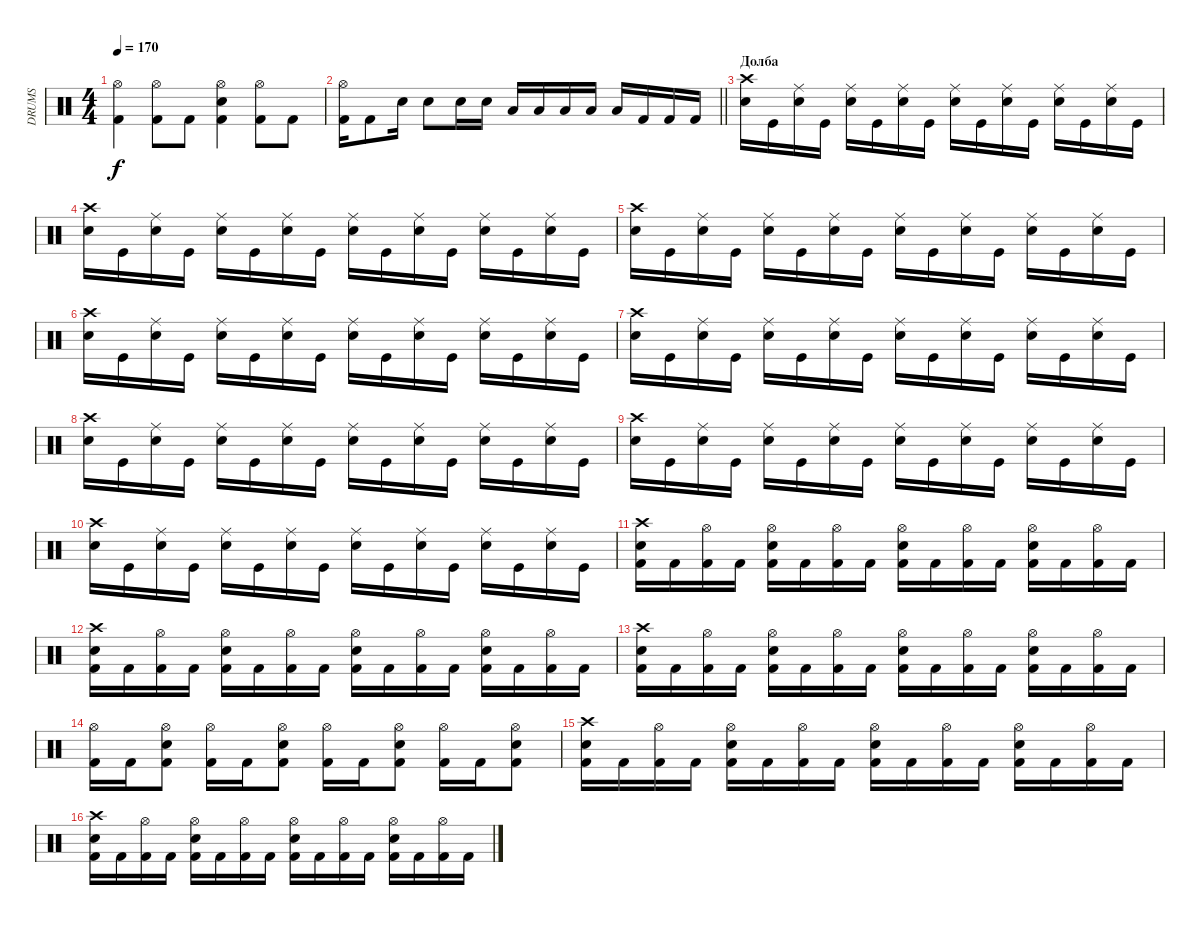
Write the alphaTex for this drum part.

\track ("DRUMS" "DRUMS") {instrument percussion}
\staff {score}
\articulation defaults
\ts (4 4)
\tempo 170
\clef neutral
\ks c
("Hi-Hat (open)" "Kick (hit) 2").4{dy f} ("Hi-Hat (open)" "Kick (hit) 2").8 "Kick (hit) 2".8 ("Hi-Hat (open)" "Snare (hit) 2" "Kick (hit) 2").4 ("Hi-Hat (open)" "Kick (hit) 2").8 "Kick (hit) 2".8 |
\barLineRight lightlight
("Hi-Hat (open)" "Kick (hit) 2").16 "Kick (hit) 2".8 "Snare (hit) 2".16 "Snare (hit) 2".8 "Snare (hit) 2".16 "Snare (hit) 2".16 "Low Tom (hit)".16 "Low Tom (hit)".16 "Low Tom (hit)".16 "Low Tom (hit)".16 "Low Tom (hit)".16 "Kick (hit) 2".16 "Kick (hit) 2".16 "Kick (hit) 2".16 |
\section ("" "Долба")
("Snare (hit) 2" "Crash high (hit)").16 "Kick (hit)".16 ("Snare (hit) 2" "Ride (middle)").16 "Kick (hit)".16 ("Snare (hit) 2" "Ride (middle)").16 "Kick (hit)".16 ("Snare (hit) 2" "Ride (middle)").16 "Kick (hit)".16 ("Snare (hit) 2" "Ride (middle)").16 "Kick (hit)".16 ("Snare (hit) 2" "Ride (middle)").16 "Kick (hit)".16 ("Snare (hit) 2" "Ride (middle)").16 "Kick (hit)".16 ("Snare (hit) 2" "Ride (middle)").16 "Kick (hit)".16 |
("Snare (hit) 2" "Crash high (hit)").16 "Kick (hit)".16 ("Snare (hit) 2" "Ride (middle)").16 "Kick (hit)".16 ("Snare (hit) 2" "Ride (middle)").16 "Kick (hit)".16 ("Snare (hit) 2" "Ride (middle)").16 "Kick (hit)".16 ("Snare (hit) 2" "Ride (middle)").16 "Kick (hit)".16 ("Snare (hit) 2" "Ride (middle)").16 "Kick (hit)".16 ("Snare (hit) 2" "Ride (middle)").16 "Kick (hit)".16 ("Snare (hit) 2" "Ride (middle)").16 "Kick (hit)".16 |
("Snare (hit) 2" "Crash high (hit)").16 "Kick (hit)".16 ("Snare (hit) 2" "Ride (middle)").16 "Kick (hit)".16 ("Snare (hit) 2" "Ride (middle)").16 "Kick (hit)".16 ("Snare (hit) 2" "Ride (middle)").16 "Kick (hit)".16 ("Snare (hit) 2" "Ride (middle)").16 "Kick (hit)".16 ("Snare (hit) 2" "Ride (middle)").16 "Kick (hit)".16 ("Snare (hit) 2" "Ride (middle)").16 "Kick (hit)".16 ("Snare (hit) 2" "Ride (middle)").16 "Kick (hit)".16 |
("Snare (hit) 2" "Crash high (hit)").16 "Kick (hit)".16 ("Snare (hit) 2" "Ride (middle)").16 "Kick (hit)".16 ("Snare (hit) 2" "Ride (middle)").16 "Kick (hit)".16 ("Snare (hit) 2" "Ride (middle)").16 "Kick (hit)".16 ("Snare (hit) 2" "Ride (middle)").16 "Kick (hit)".16 ("Snare (hit) 2" "Ride (middle)").16 "Kick (hit)".16 ("Snare (hit) 2" "Ride (middle)").16 "Kick (hit)".16 ("Snare (hit) 2" "Ride (middle)").16 "Kick (hit)".16 |
("Snare (hit) 2" "Crash high (hit)").16 "Kick (hit)".16 ("Snare (hit) 2" "Ride (middle)").16 "Kick (hit)".16 ("Snare (hit) 2" "Ride (middle)").16 "Kick (hit)".16 ("Snare (hit) 2" "Ride (middle)").16 "Kick (hit)".16 ("Snare (hit) 2" "Ride (middle)").16 "Kick (hit)".16 ("Snare (hit) 2" "Ride (middle)").16 "Kick (hit)".16 ("Snare (hit) 2" "Ride (middle)").16 "Kick (hit)".16 ("Snare (hit) 2" "Ride (middle)").16 "Kick (hit)".16 |
("Snare (hit) 2" "Crash high (hit)").16 "Kick (hit)".16 ("Snare (hit) 2" "Ride (middle)").16 "Kick (hit)".16 ("Snare (hit) 2" "Ride (middle)").16 "Kick (hit)".16 ("Snare (hit) 2" "Ride (middle)").16 "Kick (hit)".16 ("Snare (hit) 2" "Ride (middle)").16 "Kick (hit)".16 ("Snare (hit) 2" "Ride (middle)").16 "Kick (hit)".16 ("Snare (hit) 2" "Ride (middle)").16 "Kick (hit)".16 ("Snare (hit) 2" "Ride (middle)").16 "Kick (hit)".16 |
("Snare (hit) 2" "Crash high (hit)").16 "Kick (hit)".16 ("Snare (hit) 2" "Ride (middle)").16 "Kick (hit)".16 ("Snare (hit) 2" "Ride (middle)").16 "Kick (hit)".16 ("Snare (hit) 2" "Ride (middle)").16 "Kick (hit)".16 ("Snare (hit) 2" "Ride (middle)").16 "Kick (hit)".16 ("Snare (hit) 2" "Ride (middle)").16 "Kick (hit)".16 ("Snare (hit) 2" "Ride (middle)").16 "Kick (hit)".16 ("Snare (hit) 2" "Ride (middle)").16 "Kick (hit)".16 |
("Snare (hit) 2" "Crash high (hit)").16 "Kick (hit)".16 ("Snare (hit) 2" "Ride (middle)").16 "Kick (hit)".16 ("Snare (hit) 2" "Ride (middle)").16 "Kick (hit)".16 ("Snare (hit) 2" "Ride (middle)").16 "Kick (hit)".16 ("Snare (hit) 2" "Ride (middle)").16 "Kick (hit)".16 ("Snare (hit) 2" "Ride (middle)").16 "Kick (hit)".16 ("Snare (hit) 2" "Ride (middle)").16 "Kick (hit)".16 ("Snare (hit) 2" "Ride (middle)").16 "Kick (hit)".16 |
("Kick (hit) 2" "Snare (hit) 2" "Crash high (hit)").16 "Kick (hit) 2".16 ("Kick (hit) 2" "Hi-Hat (open)").16 "Kick (hit) 2".16 ("Kick (hit) 2" "Snare (hit) 2" "Hi-Hat (open)").16 "Kick (hit) 2".16 ("Kick (hit) 2" "Hi-Hat (open)").16 "Kick (hit) 2".16 ("Kick (hit) 2" "Snare (hit) 2" "Hi-Hat (open)").16 "Kick (hit) 2".16 ("Kick (hit) 2" "Hi-Hat (open)").16 "Kick (hit) 2".16 ("Kick (hit) 2" "Snare (hit) 2" "Hi-Hat (open)").16 "Kick (hit) 2".16 ("Kick (hit) 2" "Hi-Hat (open)").16 "Kick (hit) 2".16 |
("Kick (hit) 2" "Snare (hit) 2" "Crash high (hit)").16 "Kick (hit) 2".16 ("Kick (hit) 2" "Hi-Hat (open)").16 "Kick (hit) 2".16 ("Kick (hit) 2" "Snare (hit) 2" "Hi-Hat (open)").16 "Kick (hit) 2".16 ("Kick (hit) 2" "Hi-Hat (open)").16 "Kick (hit) 2".16 ("Kick (hit) 2" "Snare (hit) 2" "Hi-Hat (open)").16 "Kick (hit) 2".16 ("Kick (hit) 2" "Hi-Hat (open)").16 "Kick (hit) 2".16 ("Kick (hit) 2" "Snare (hit) 2" "Hi-Hat (open)").16 "Kick (hit) 2".16 ("Kick (hit) 2" "Hi-Hat (open)").16 "Kick (hit) 2".16 |
("Kick (hit) 2" "Snare (hit) 2" "Crash high (hit)").16 "Kick (hit) 2".16 ("Kick (hit) 2" "Hi-Hat (open)").16 "Kick (hit) 2".16 ("Kick (hit) 2" "Snare (hit) 2" "Hi-Hat (open)").16 "Kick (hit) 2".16 ("Kick (hit) 2" "Hi-Hat (open)").16 "Kick (hit) 2".16 ("Kick (hit) 2" "Snare (hit) 2" "Hi-Hat (open)").16 "Kick (hit) 2".16 ("Kick (hit) 2" "Hi-Hat (open)").16 "Kick (hit) 2".16 ("Kick (hit) 2" "Snare (hit) 2" "Hi-Hat (open)").16 "Kick (hit) 2".16 ("Kick (hit) 2" "Hi-Hat (open)").16 "Kick (hit) 2".16 |
("Hi-Hat (open)" "Kick (hit) 2").16 "Kick (hit) 2".16 ("Hi-Hat (open)" "Snare (hit) 2" "Kick (hit) 2").8 ("Hi-Hat (open)" "Kick (hit) 2").16 "Kick (hit) 2".16 ("Hi-Hat (open)" "Snare (hit) 2" "Kick (hit) 2").8 ("Hi-Hat (open)" "Kick (hit) 2").16 "Kick (hit) 2".16 ("Hi-Hat (open)" "Snare (hit) 2" "Kick (hit) 2").8 ("Hi-Hat (open)" "Kick (hit) 2").16 "Kick (hit) 2".16 ("Hi-Hat (open)" "Snare (hit) 2" "Kick (hit) 2").8 |
("Kick (hit) 2" "Snare (hit) 2" "Crash high (hit)").16 "Kick (hit) 2".16 ("Kick (hit) 2" "Hi-Hat (open)").16 "Kick (hit) 2".16 ("Kick (hit) 2" "Snare (hit) 2" "Hi-Hat (open)").16 "Kick (hit) 2".16 ("Kick (hit) 2" "Hi-Hat (open)").16 "Kick (hit) 2".16 ("Kick (hit) 2" "Snare (hit) 2" "Hi-Hat (open)").16 "Kick (hit) 2".16 ("Kick (hit) 2" "Hi-Hat (open)").16 "Kick (hit) 2".16 ("Kick (hit) 2" "Snare (hit) 2" "Hi-Hat (open)").16 "Kick (hit) 2".16 ("Kick (hit) 2" "Hi-Hat (open)").16 "Kick (hit) 2".16 |
("Kick (hit) 2" "Snare (hit) 2" "Crash high (hit)").16 "Kick (hit) 2".16 ("Kick (hit) 2" "Hi-Hat (open)").16 "Kick (hit) 2".16 ("Kick (hit) 2" "Snare (hit) 2" "Hi-Hat (open)").16 "Kick (hit) 2".16 ("Kick (hit) 2" "Hi-Hat (open)").16 "Kick (hit) 2".16 ("Kick (hit) 2" "Snare (hit) 2" "Hi-Hat (open)").16 "Kick (hit) 2".16 ("Kick (hit) 2" "Hi-Hat (open)").16 "Kick (hit) 2".16 ("Kick (hit) 2" "Snare (hit) 2" "Hi-Hat (open)").16 "Kick (hit) 2".16 ("Kick (hit) 2" "Hi-Hat (open)").16 "Kick (hit) 2".16
